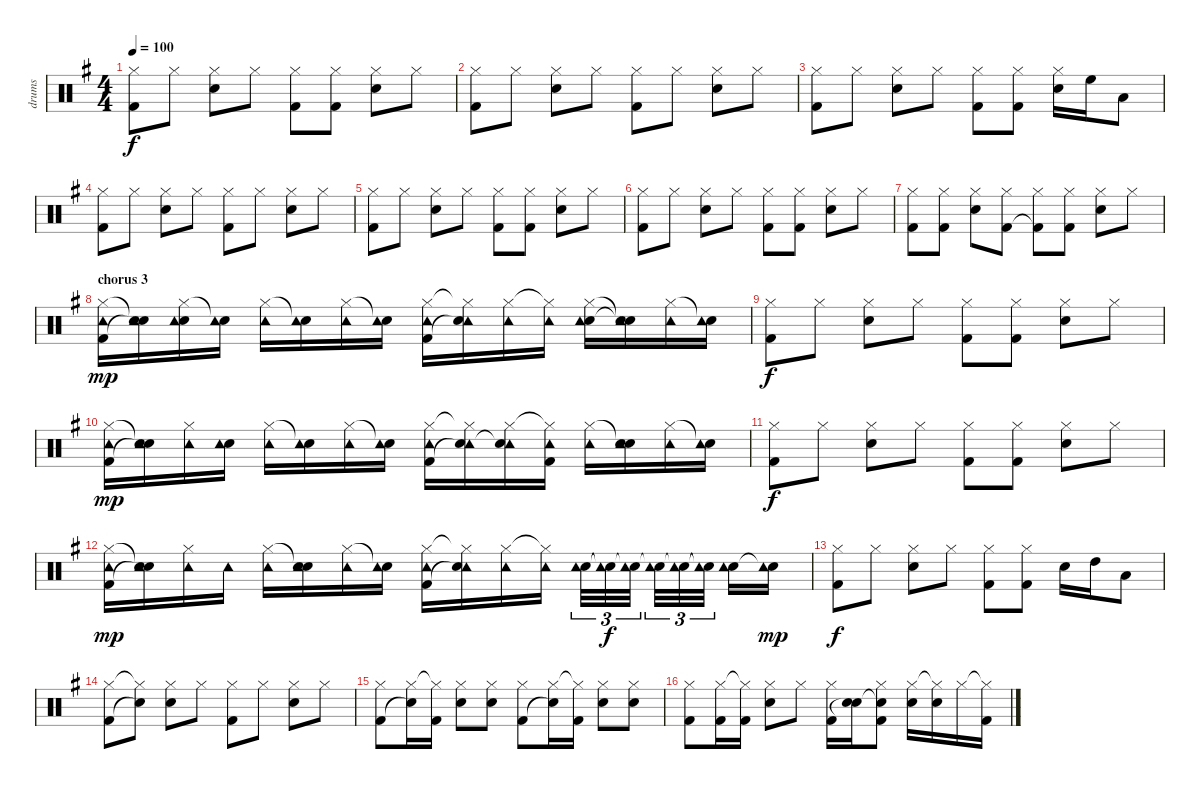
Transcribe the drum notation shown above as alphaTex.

\track ("drums" "drums") {instrument percussion}
\staff {score}
\articulation defaults
\ts (4 4)
\tempo 100
\clef neutral
\ks g
("Hi-Hat (closed)" "Kick (hit) 2").8{dy f} "Hi-Hat (closed)".8 ("Hi-Hat (closed)" "Snare (hit) 2").8 "Hi-Hat (closed)".8 ("Hi-Hat (closed)" "Kick (hit) 2").8 ("Hi-Hat (closed)" "Kick (hit) 2").8 ("Hi-Hat (closed)" "Snare (hit) 2").8 "Hi-Hat (closed)".8 |
("Hi-Hat (closed)" "Kick (hit) 2").8 "Hi-Hat (closed)".8 ("Hi-Hat (closed)" "Snare (hit) 2").8 "Hi-Hat (closed)".8 ("Hi-Hat (closed)" "Kick (hit) 2").8 "Hi-Hat (closed)".8 ("Hi-Hat (closed)" "Snare (hit) 2").8 "Hi-Hat (closed)".8 |
("Hi-Hat (closed)" "Kick (hit) 2").8 "Hi-Hat (closed)".8 ("Hi-Hat (closed)" "Snare (hit) 2").8 "Hi-Hat (closed)".8 ("Hi-Hat (closed)" "Kick (hit) 2").8 ("Hi-Hat (closed)" "Kick (hit) 2").8 ("Hi-Hat (closed)" "Snare (hit) 2").16 "High Floor Tom (hit)".16 "Low Tom (hit)".8 |
("Hi-Hat (closed)" "Kick (hit) 2").8 "Hi-Hat (closed)".8 ("Hi-Hat (closed)" "Snare (hit) 2").8 "Hi-Hat (closed)".8 ("Hi-Hat (closed)" "Kick (hit) 2").8 "Hi-Hat (closed)".8 ("Hi-Hat (closed)" "Snare (hit) 2").8 "Hi-Hat (closed)".8 |
("Hi-Hat (closed)" "Kick (hit) 2").8 "Hi-Hat (closed)".8 ("Hi-Hat (closed)" "Snare (hit) 2").8 "Hi-Hat (closed)".8 ("Hi-Hat (closed)" "Kick (hit) 2").8 ("Hi-Hat (closed)" "Kick (hit) 2").8 ("Hi-Hat (closed)" "Snare (hit) 2").8 "Hi-Hat (closed)".8 |
("Hi-Hat (closed)" "Kick (hit) 2").8 "Hi-Hat (closed)".8 ("Hi-Hat (closed)" "Snare (hit) 2").8 "Hi-Hat (closed)".8 ("Hi-Hat (closed)" "Kick (hit) 2").8 ("Hi-Hat (closed)" "Kick (hit) 2").8 ("Hi-Hat (closed)" "Snare (hit) 2").8 "Hi-Hat (closed)".8 |
("Hi-Hat (closed)" "Kick (hit) 2").8 ("Hi-Hat (closed)" "Kick (hit) 2").8 ("Hi-Hat (closed)" "Snare (hit) 2").8 ("Hi-Hat (closed)" "Kick (hit) 2").8 ("Hi-Hat (closed)" "Kick (hit) 2"{t}).8 ("Hi-Hat (closed)" "Kick (hit) 2").8 ("Hi-Hat (closed)" "Snare (hit) 2").8 "Hi-Hat (closed)".8 |
\section ("" "chorus 3")
("Hi-Hat (closed)" "Tambourine (hit)" "Kick (hit) 2").16{dy mp} ("Snare (hit)"{t} "Tambourine (hit)" "Snare (hit)"{t}).16 ("Hi-Hat (closed)" "Snare (hit) 2" "Tambourine (hit)").16 ("Snare (hit) 2"{t} "Tambourine (hit)").16 ("Hi-Hat (closed)" "Tambourine (hit)").16 ("Snare (hit)"{t} "Tambourine (hit)").16 ("Hi-Hat (closed)" "Tambourine (hit)").16 ("Snare (hit)"{t} "Tambourine (hit)").16 ("Hi-Hat (closed)" "Tambourine (hit)" "Kick (hit) 2").16 ("Hi-Hat (closed)"{t} "Tambourine (hit)" "Snare (hit)"{t}).16 ("Hi-Hat (closed)" "Tambourine (hit)").16 ("Hi-Hat (closed)"{t} "Tambourine (hit)").16 ("Hi-Hat (closed)" "Snare (hit) 2" "Tambourine (hit)").16 ("Snare (hit)"{t} "Snare (hit)"{t} "Tambourine (hit)").16 ("Hi-Hat (closed)" "Tambourine (hit)").16 ("Snare (hit)"{t} "Tambourine (hit)").16 |
("Hi-Hat (closed)" "Kick (hit) 2").8{dy f} "Hi-Hat (closed)".8 ("Hi-Hat (closed)" "Snare (hit) 2").8 "Hi-Hat (closed)".8 ("Hi-Hat (closed)" "Kick (hit) 2").8 ("Hi-Hat (closed)" "Kick (hit) 2").8 ("Hi-Hat (closed)" "Snare (hit) 2").8 "Hi-Hat (closed)".8 |
("Hi-Hat (closed)" "Tambourine (hit)" "Kick (hit) 2").16{dy mp} ("Snare (hit)"{t} "Tambourine (hit)" "Snare (hit)"{t}).16 ("Hi-Hat (closed)" "Tambourine (hit)").16 ("Snare (hit) 2" "Tambourine (hit)").16 ("Hi-Hat (closed)" "Tambourine (hit)").16 ("Snare (hit)"{t} "Tambourine (hit)").16 ("Hi-Hat (closed)" "Tambourine (hit)").16 ("Snare (hit)"{t} "Tambourine (hit)").16 ("Hi-Hat (closed)" "Tambourine (hit)" "Kick (hit) 2").16 ("Hi-Hat (closed)"{t} "Tambourine (hit)" "Snare (hit)"{t}).16 ("Hi-Hat (closed)" "Tambourine (hit)" "Snare (hit)"{t}).16 ("Hi-Hat (closed)"{t} "Tambourine (hit)" "Kick (hit) 2").16 ("Hi-Hat (closed)" "Tambourine (hit)").16 ("Snare (hit)"{t} "Snare (hit) 2" "Tambourine (hit)").16 ("Hi-Hat (closed)" "Tambourine (hit)").16 ("Snare (hit)"{t} "Tambourine (hit)").16 |
("Hi-Hat (closed)" "Kick (hit) 2").8{dy f} "Hi-Hat (closed)".8 ("Hi-Hat (closed)" "Snare (hit) 2").8 "Hi-Hat (closed)".8 ("Hi-Hat (closed)" "Kick (hit) 2").8 ("Hi-Hat (closed)" "Kick (hit) 2").8 ("Hi-Hat (closed)" "Snare (hit) 2").8 "Hi-Hat (closed)".8 |
("Hi-Hat (closed)" "Tambourine (hit)" "Kick (hit) 2").16{dy mp} ("Snare (hit)"{t} "Tambourine (hit)" "Snare (hit)"{t}).16 ("Hi-Hat (closed)" "Tambourine (hit)").16 "Tambourine (hit)".16 ("Hi-Hat (closed)" "Tambourine (hit)").16 ("Snare (hit)"{t} "Snare (hit) 2" "Tambourine (hit)").16 ("Hi-Hat (closed)" "Tambourine (hit)").16 ("Snare (hit)"{t} "Tambourine (hit)").16 ("Hi-Hat (closed)" "Tambourine (hit)" "Kick (hit) 2").16 ("Hi-Hat (closed)"{t} "Tambourine (hit)" "Snare (hit)"{t}).16 ("Hi-Hat (closed)" "Tambourine (hit)").16 ("Hi-Hat (closed)"{t} "Tambourine (hit)").16 ("Snare (hit) 2" "Tambourine (hit)").32{tu (3 2)} ("Snare (hit) 2"{t} "Tambourine (hit)"{t}).32{tu (3 2) dy f} ("Snare (hit) 2" "Tambourine (hit)"{t}).32{tu (3 2)} ("Snare (hit) 2"{t} "Tambourine (hit)").32{tu (3 2)} ("Snare (hit) 2" "Tambourine (hit)"{t}).32{tu (3 2)} ("Snare (hit) 2"{t} "Tambourine (hit)"{t}).32{tu (3 2)} ("Snare (hit) 2" "Tambourine (hit)").16 ("Snare (hit) 2"{t} "Tambourine (hit)").16{dy mp} |
("Hi-Hat (closed)" "Kick (hit) 2").8{dy f} "Hi-Hat (closed)".8 ("Hi-Hat (closed)" "Snare (hit) 2").8 "Hi-Hat (closed)".8 ("Hi-Hat (closed)" "Kick (hit) 2").8 ("Hi-Hat (closed)" "Kick (hit) 2").8 "Snare (hit) 2".16 "High Tom (hit)".16 "Low Tom (hit)".8 |
("Hi-Hat (closed)" "Kick (hit) 2").8 ("Hi-Hat (closed)"{t} "Snare (hit)"{t}).8 ("Hi-Hat (closed)" "Snare (hit) 2").8 "Hi-Hat (closed)".8 ("Hi-Hat (closed)" "Kick (hit) 2").8 "Hi-Hat (closed)".8 ("Hi-Hat (closed)" "Snare (hit) 2").8 "Hi-Hat (closed)".8 |
("Hi-Hat (closed)" "Kick (hit) 2").8 ("Hi-Hat (closed)" "Snare (hit)"{t}).16 ("Hi-Hat (closed)"{t} "Kick (hit) 2").16 ("Hi-Hat (closed)" "Snare (hit) 2").8 ("Hi-Hat (closed)" "Snare (hit) 2").8 ("Hi-Hat (closed)" "Kick (hit) 2").8 ("Hi-Hat (closed)" "Snare (hit)"{t}).16 ("Hi-Hat (closed)"{t} "Kick (hit) 2").16 ("Hi-Hat (closed)" "Snare (hit) 2").8 ("Hi-Hat (closed)" "Snare (hit) 2").8 |
("Hi-Hat (closed)" "Kick (hit) 2").8 ("Hi-Hat (closed)" "Kick (hit) 2").16 ("Hi-Hat (closed)"{t} "Kick (hit) 2").16 ("Hi-Hat (closed)" "Snare (hit) 2").8 "Hi-Hat (closed)".8 ("Hi-Hat (closed)" "Kick (hit) 2").16 ("Snare (hit) 2" "Snare (hit)"{t}).16 ("Hi-Hat (closed)" "Snare (hit)"{t} "Kick (hit) 2").8 ("Hi-Hat (closed)" "Snare (hit) 2").16 ("Hi-Hat (closed)"{t} "Snare (hit) 2").16 "Hi-Hat (closed)".16 ("Hi-Hat (closed)"{t} "Kick (hit) 2").16
